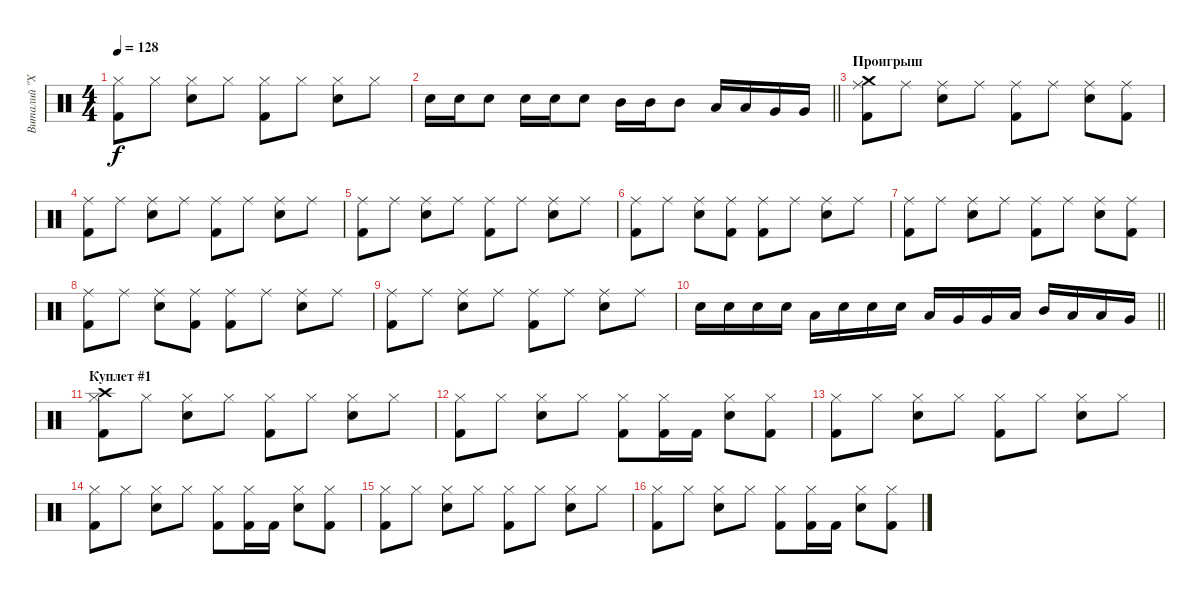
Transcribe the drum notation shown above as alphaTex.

\track ("Виталий \"Хамер\" Лядов" "Виталий \"Х") {instrument percussion}
\staff {score}
\articulation defaults
\ts (4 4)
\tempo 128
\clef neutral
\ks c
("Kick (hit) 2" "Hi-Hat (closed)").8{dy f} "Hi-Hat (closed)".8 ("Electric Snare (hit)" "Hi-Hat (closed)").8 "Hi-Hat (closed)".8 ("Kick (hit) 2" "Hi-Hat (closed)").8 "Hi-Hat (closed)".8 ("Electric Snare (hit)" "Hi-Hat (closed)").8 "Hi-Hat (closed)".8 |
\barLineRight lightlight "Electric Snare (hit)".16 "Electric Snare (hit)".16 "Electric Snare (hit)".8 "Electric Snare (hit)".16 "Electric Snare (hit)".16 "Electric Snare (hit)".8 "Mid Tom (hit)".16 "Mid Tom (hit)".16 "Mid Tom (hit)".8 "Low Tom (hit)".16 "Low Tom (hit)".16 "Very Low Tom (hit)".16 "Very Low Tom (hit)".16
|
\section ("" "Проигрыш")
("Kick (hit) 2" "Ride (middle)" "Crash medium (hit)").8 "Ride (middle)".8 ("Electric Snare (hit)" "Ride (middle)").8 "Ride (middle)".8 ("Kick (hit) 2" "Ride (middle)").8 "Ride (middle)".8 ("Electric Snare (hit)" "Ride (middle)").8 ("Kick (hit) 2" "Ride (middle)").8 |
("Kick (hit) 2" "Ride (middle)").8 "Ride (middle)".8 ("Electric Snare (hit)" "Ride (middle)").8 "Ride (middle)".8 ("Kick (hit) 2" "Ride (middle)").8 "Ride (middle)".8 ("Electric Snare (hit)" "Ride (middle)").8 "Ride (middle)".8 |
("Kick (hit) 2" "Ride (middle)").8 "Ride (middle)".8 ("Electric Snare (hit)" "Ride (middle)").8 "Ride (middle)".8 ("Kick (hit) 2" "Ride (middle)").8 "Ride (middle)".8 ("Electric Snare (hit)" "Ride (middle)").8 "Ride (middle)".8 |
("Kick (hit) 2" "Ride (middle)").8 "Ride (middle)".8 ("Electric Snare (hit)" "Ride (middle)").8 ("Kick (hit) 2" "Ride (middle)").8 ("Kick (hit) 2" "Ride (middle)").8 "Ride (middle)".8 ("Electric Snare (hit)" "Ride (middle)").8 "Ride (middle)".8 |
("Kick (hit) 2" "Ride (middle)").8 "Ride (middle)".8 ("Electric Snare (hit)" "Ride (middle)").8 "Ride (middle)".8 ("Kick (hit) 2" "Ride (middle)").8 "Ride (middle)".8 ("Electric Snare (hit)" "Ride (middle)").8 ("Kick (hit) 2" "Ride (middle)").8 |
("Kick (hit) 2" "Ride (middle)").8 "Ride (middle)".8 ("Electric Snare (hit)" "Ride (middle)").8 ("Kick (hit) 2" "Ride (middle)").8 ("Kick (hit) 2" "Ride (middle)").8 "Ride (middle)".8 ("Electric Snare (hit)" "Ride (middle)").8 "Ride (middle)".8 |
("Kick (hit) 2" "Ride (middle)").8 "Ride (middle)".8 ("Electric Snare (hit)" "Ride (middle)").8 "Ride (middle)".8 ("Kick (hit) 2" "Ride (middle)").8 "Ride (middle)".8 ("Electric Snare (hit)" "Ride (middle)").8 "Ride (middle)".8 |
\barLineRight lightlight "Electric Snare (hit)".16 "Electric Snare (hit)".16 "Electric Snare (hit)".16 "Electric Snare (hit)".16 "Low Tom (hit)".16 "Electric Snare (hit)".16 "Electric Snare (hit)".16 "Electric Snare (hit)".16 "Low Tom (hit)".16 "Very Low Tom (hit)".16 "Very Low Tom (hit)".16 "Low Floor Tom (hit)".16 "Mid Tom (hit)".16 "Low Tom (hit)".16 "Low Tom (hit)".16 "Very Low Tom (hit)".16
|
\section ("" "Куплет #1")
("Kick (hit) 2" "Hi-Hat (closed)" "Crash high (hit)").8 "Hi-Hat (closed)".8 ("Electric Snare (hit)" "Hi-Hat (closed)").8 "Hi-Hat (closed)".8 ("Kick (hit) 2" "Hi-Hat (closed)").8 "Hi-Hat (closed)".8 ("Electric Snare (hit)" "Hi-Hat (closed)").8 "Hi-Hat (closed)".8 |
("Kick (hit) 2" "Hi-Hat (closed)").8 "Hi-Hat (closed)".8 ("Electric Snare (hit)" "Hi-Hat (closed)").8 "Hi-Hat (closed)".8 ("Kick (hit) 2" "Hi-Hat (closed)").8 ("Kick (hit) 2" "Hi-Hat (closed)").16 "Kick (hit) 2".16 ("Electric Snare (hit)" "Hi-Hat (closed)").8 ("Kick (hit) 2" "Hi-Hat (closed)").8 |
("Kick (hit) 2" "Hi-Hat (closed)").8 "Hi-Hat (closed)".8 ("Electric Snare (hit)" "Hi-Hat (closed)").8 "Hi-Hat (closed)".8 ("Kick (hit) 2" "Hi-Hat (closed)").8 "Hi-Hat (closed)".8 ("Electric Snare (hit)" "Hi-Hat (closed)").8 "Hi-Hat (closed)".8 |
("Kick (hit) 2" "Hi-Hat (closed)").8 "Hi-Hat (closed)".8 ("Electric Snare (hit)" "Hi-Hat (closed)").8 "Hi-Hat (closed)".8 ("Kick (hit) 2" "Hi-Hat (closed)").8 ("Kick (hit) 2" "Hi-Hat (closed)").16 "Kick (hit) 2".16 ("Electric Snare (hit)" "Hi-Hat (closed)").8 ("Kick (hit) 2" "Hi-Hat (closed)").8 |
("Kick (hit) 2" "Hi-Hat (closed)").8 "Hi-Hat (closed)".8 ("Electric Snare (hit)" "Hi-Hat (closed)").8 "Hi-Hat (closed)".8 ("Kick (hit) 2" "Hi-Hat (closed)").8 "Hi-Hat (closed)".8 ("Electric Snare (hit)" "Hi-Hat (closed)").8 "Hi-Hat (closed)".8 |
("Kick (hit) 2" "Hi-Hat (closed)").8 "Hi-Hat (closed)".8 ("Electric Snare (hit)" "Hi-Hat (closed)").8 "Hi-Hat (closed)".8 ("Kick (hit) 2" "Hi-Hat (closed)").8 ("Kick (hit) 2" "Hi-Hat (closed)").16 "Kick (hit) 2".16 ("Electric Snare (hit)" "Hi-Hat (closed)").8 ("Kick (hit) 2" "Hi-Hat (closed)").8
